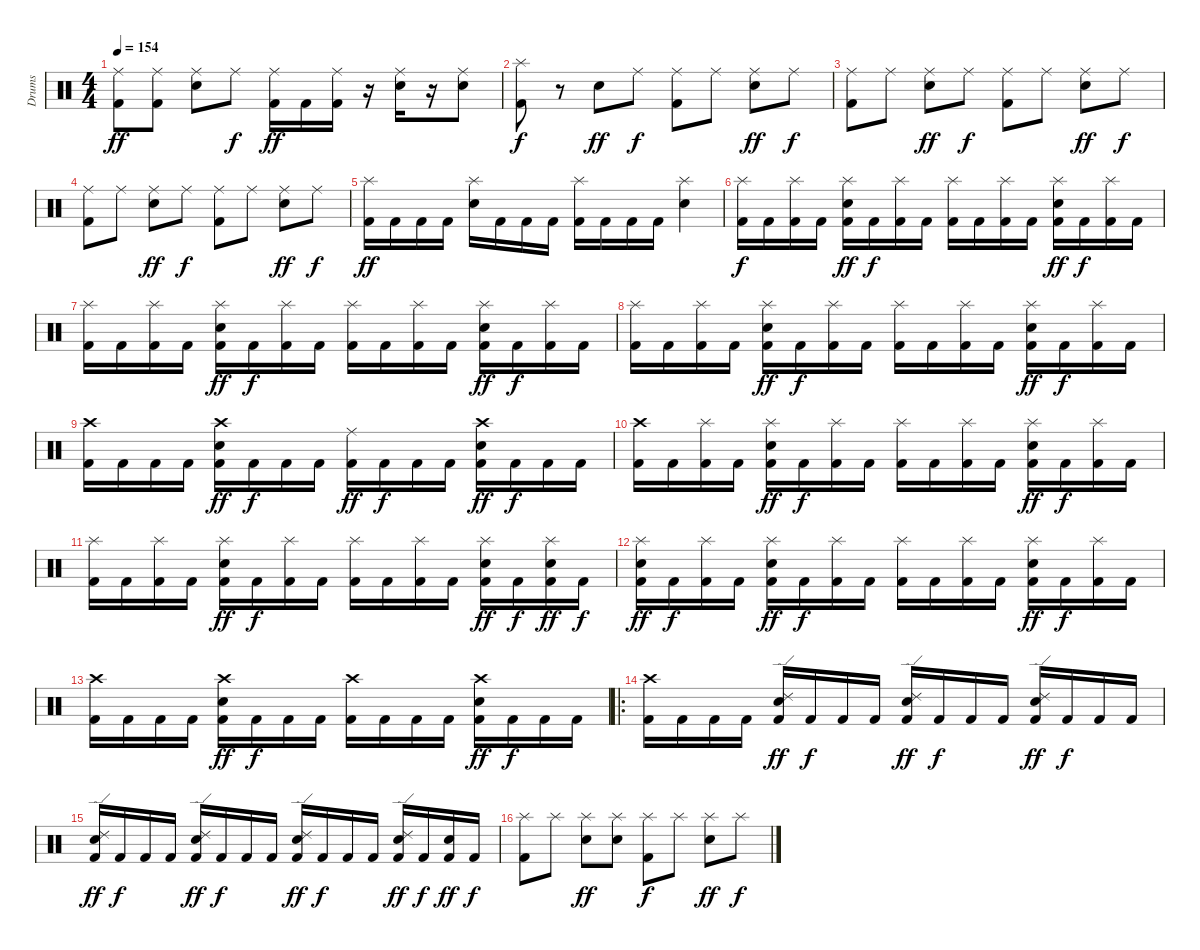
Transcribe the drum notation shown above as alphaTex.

\track ("Drums" "Drums") {instrument percussion}
\staff {score}
\articulation defaults
\ts (4 4)
\tempo 154
\clef neutral
\ks c
("Ride (middle)" "Kick (hit) 2").8{dy ff} ("Ride (middle)" "Kick (hit) 2").8 ("Ride (middle)" "Snare (hit) 2").8 "Ride (middle)".8{dy f} ("Ride (middle)" "Kick (hit) 2").16{dy ff} "Kick (hit) 2".16 ("Ride (middle)" "Kick (hit) 2").16 r.16 ("Ride (middle)" "Snare (hit) 2").16 r.16 ("Ride (middle)" "Snare (hit) 2").8 |
("Splash (hit)" "Kick (hit) 2").8{dy f} r.8 "Snare (hit) 2".8{dy ff} "Ride (middle)".8{dy f} ("Ride (middle)" "Kick (hit) 2").8 "Ride (middle)".8 ("Ride (middle)" "Snare (hit) 2").8{dy ff} "Ride (middle)".8{dy f} |
("Ride (middle)" "Kick (hit) 2").8 "Ride (middle)".8 ("Ride (middle)" "Snare (hit) 2").8{dy ff} "Ride (middle)".8{dy f} ("Ride (middle)" "Kick (hit) 2").8 "Ride (middle)".8 ("Ride (middle)" "Snare (hit) 2").8{dy ff} "Ride (middle)".8{dy f} |
("Ride (middle)" "Kick (hit) 2").8 "Ride (middle)".8 ("Ride (middle)" "Snare (hit) 2").8{dy ff} "Ride (middle)".8{dy f} ("Ride (middle)" "Kick (hit) 2").8 "Ride (middle)".8 ("Ride (middle)" "Snare (hit) 2").8{dy ff} "Ride (middle)".8{dy f} |
("Splash (hit)" "Kick (hit) 2").16{dy ff} "Kick (hit) 2".16 "Kick (hit) 2".16 "Kick (hit) 2".16 ("Splash (hit)" "Snare (hit) 2").16 "Kick (hit) 2".16 "Kick (hit) 2".16 "Kick (hit) 2".16 ("Splash (hit)" "Kick (hit) 2").16 "Kick (hit) 2".16 "Kick (hit) 2".16 "Kick (hit) 2".16 ("Splash (hit)" "Snare (hit) 2").4 |
("Splash (hit)" "Kick (hit) 2").16{dy f} "Kick (hit) 2".16 ("Splash (hit)" "Kick (hit) 2").16 "Kick (hit) 2".16 ("Splash (hit)" "Snare (hit) 2" "Kick (hit) 2").16{dy ff} "Kick (hit) 2".16{dy f} ("Splash (hit)" "Kick (hit) 2").16 "Kick (hit) 2".16 ("Splash (hit)" "Kick (hit) 2").16 "Kick (hit) 2".16 ("Splash (hit)" "Kick (hit) 2").16 "Kick (hit) 2".16 ("Splash (hit)" "Snare (hit) 2" "Kick (hit) 2").16{dy ff} "Kick (hit) 2".16{dy f} ("Splash (hit)" "Kick (hit) 2").16 "Kick (hit) 2".16 |
("Splash (hit)" "Kick (hit) 2").16 "Kick (hit) 2".16 ("Splash (hit)" "Kick (hit) 2").16 "Kick (hit) 2".16 ("Splash (hit)" "Snare (hit) 2" "Kick (hit) 2").16{dy ff} "Kick (hit) 2".16{dy f} ("Splash (hit)" "Kick (hit) 2").16 "Kick (hit) 2".16 ("Splash (hit)" "Kick (hit) 2").16 "Kick (hit) 2".16 ("Splash (hit)" "Kick (hit) 2").16 "Kick (hit) 2".16 ("Splash (hit)" "Snare (hit) 2" "Kick (hit) 2").16{dy ff} "Kick (hit) 2".16{dy f} ("Splash (hit)" "Kick (hit) 2").16 "Kick (hit) 2".16 |
("Splash (hit)" "Kick (hit) 2").16 "Kick (hit) 2".16 ("Splash (hit)" "Kick (hit) 2").16 "Kick (hit) 2".16 ("Splash (hit)" "Snare (hit) 2" "Kick (hit) 2").16{dy ff} "Kick (hit) 2".16{dy f} ("Splash (hit)" "Kick (hit) 2").16 "Kick (hit) 2".16 ("Splash (hit)" "Kick (hit) 2").16 "Kick (hit) 2".16 ("Splash (hit)" "Kick (hit) 2").16 "Kick (hit) 2".16 ("Splash (hit)" "Snare (hit) 2" "Kick (hit) 2").16{dy ff} "Kick (hit) 2".16{dy f} ("Splash (hit)" "Kick (hit) 2").16 "Kick (hit) 2".16 |
("Crash high (hit)" "Kick (hit) 2").16 "Kick (hit) 2".16 "Kick (hit) 2".16 "Kick (hit) 2".16 ("Crash high (hit)" "Snare (hit) 2" "Kick (hit) 2").16{dy ff} "Kick (hit) 2".16{dy f} "Kick (hit) 2".16 "Kick (hit) 2".16 ("Ride (middle)" "Kick (hit) 2").16{dy ff} "Kick (hit) 2".16{dy f} "Kick (hit) 2".16 "Kick (hit) 2".16 ("Crash high (hit)" "Snare (hit) 2" "Kick (hit) 2").16{dy ff} "Kick (hit) 2".16{dy f} "Kick (hit) 2".16 "Kick (hit) 2".16 |
("Crash high (hit)" "Kick (hit) 2").16 "Kick (hit) 2".16 ("Splash (hit)" "Kick (hit) 2").16 "Kick (hit) 2".16 ("Splash (hit)" "Snare (hit) 2" "Kick (hit) 2").16{dy ff} "Kick (hit) 2".16{dy f} ("Splash (hit)" "Kick (hit) 2").16 "Kick (hit) 2".16 ("Splash (hit)" "Kick (hit) 2").16 "Kick (hit) 2".16 ("Splash (hit)" "Kick (hit) 2").16 "Kick (hit) 2".16 ("Splash (hit)" "Snare (hit) 2" "Kick (hit) 2").16{dy ff} "Kick (hit) 2".16{dy f} ("Splash (hit)" "Kick (hit) 2").16 "Kick (hit) 2".16 |
("Splash (hit)" "Kick (hit) 2").16 "Kick (hit) 2".16 ("Splash (hit)" "Kick (hit) 2").16 "Kick (hit) 2".16 ("Splash (hit)" "Snare (hit) 2" "Kick (hit) 2").16{dy ff} "Kick (hit) 2".16{dy f} ("Splash (hit)" "Kick (hit) 2").16 "Kick (hit) 2".16 ("Splash (hit)" "Kick (hit) 2").16 "Kick (hit) 2".16 ("Splash (hit)" "Kick (hit) 2").16 "Kick (hit) 2".16 ("Splash (hit)" "Snare (hit) 2" "Kick (hit) 2").16{dy ff} "Kick (hit) 2".16{dy f} ("Splash (hit)" "Snare (hit) 2" "Kick (hit) 2").16{dy ff} "Kick (hit) 2".16{dy f} |
("Splash (hit)" "Snare (hit) 2" "Kick (hit) 2").16{dy ff} "Kick (hit) 2".16{dy f} ("Splash (hit)" "Kick (hit) 2").16 "Kick (hit) 2".16 ("Splash (hit)" "Snare (hit) 2" "Kick (hit) 2").16{dy ff} "Kick (hit) 2".16{dy f} ("Splash (hit)" "Kick (hit) 2").16 "Kick (hit) 2".16 ("Splash (hit)" "Kick (hit) 2").16 "Kick (hit) 2".16 ("Splash (hit)" "Kick (hit) 2").16 "Kick (hit) 2".16 ("Splash (hit)" "Snare (hit) 2" "Kick (hit) 2").16{dy ff} "Kick (hit) 2".16{dy f} ("Splash (hit)" "Kick (hit) 2").16 "Kick (hit) 2".16 |
("Crash high (hit)" "Kick (hit) 2").16 "Kick (hit) 2".16 "Kick (hit) 2".16 "Kick (hit) 2".16 ("Crash high (hit)" "Snare (hit) 2" "Kick (hit) 2").16{dy ff} "Kick (hit) 2".16{dy f} "Kick (hit) 2".16 "Kick (hit) 2".16 ("Crash high (hit)" "Kick (hit) 2").16 "Kick (hit) 2".16 "Kick (hit) 2".16 "Kick (hit) 2".16 ("Crash high (hit)" "Snare (hit) 2" "Kick (hit) 2").16{dy ff} "Kick (hit) 2".16{dy f} "Kick (hit) 2".16 "Kick (hit) 2".16 |
\ro
("Crash high (hit)" "Kick (hit) 2").16 "Kick (hit) 2".16 "Kick (hit) 2".16 "Kick (hit) 2".16 ("Ride (edge) 2" "Snare (hit) 2" "Kick (hit) 2").16{dy ff} "Kick (hit) 2".16{dy f} "Kick (hit) 2".16 "Kick (hit) 2".16 ("Ride (edge) 2" "Snare (hit) 2" "Kick (hit) 2").16{dy ff} "Kick (hit) 2".16{dy f} "Kick (hit) 2".16 "Kick (hit) 2".16 ("Ride (edge) 2" "Snare (hit) 2" "Kick (hit) 2").16{dy ff} "Kick (hit) 2".16{dy f} "Kick (hit) 2".16 "Kick (hit) 2".16 |
("Ride (edge) 2" "Snare (hit) 2" "Kick (hit) 2").16{dy ff} "Kick (hit) 2".16{dy f} "Kick (hit) 2".16 "Kick (hit) 2".16 ("Ride (edge) 2" "Snare (hit) 2" "Kick (hit) 2").16{dy ff} "Kick (hit) 2".16{dy f} "Kick (hit) 2".16 "Kick (hit) 2".16 ("Ride (edge) 2" "Snare (hit) 2" "Kick (hit) 2").16{dy ff} "Kick (hit) 2".16{dy f} "Kick (hit) 2".16 "Kick (hit) 2".16 ("Ride (edge) 2" "Snare (hit) 2" "Kick (hit) 2").16{dy ff} "Kick (hit) 2".16{dy f} ("Snare (hit) 2" "Kick (hit) 2").16{dy ff} "Kick (hit) 2".16{dy f} |
("Splash (hit)" "Kick (hit) 2").8 "Splash (hit)".8 ("Splash (hit)" "Snare (hit) 2").8{dy ff} ("Splash (hit)" "Snare (hit) 2").8 ("Splash (hit)" "Kick (hit) 2").8{dy f} "Splash (hit)".8 ("Splash (hit)" "Snare (hit) 2").8{dy ff} "Splash (hit)".8{dy f}
